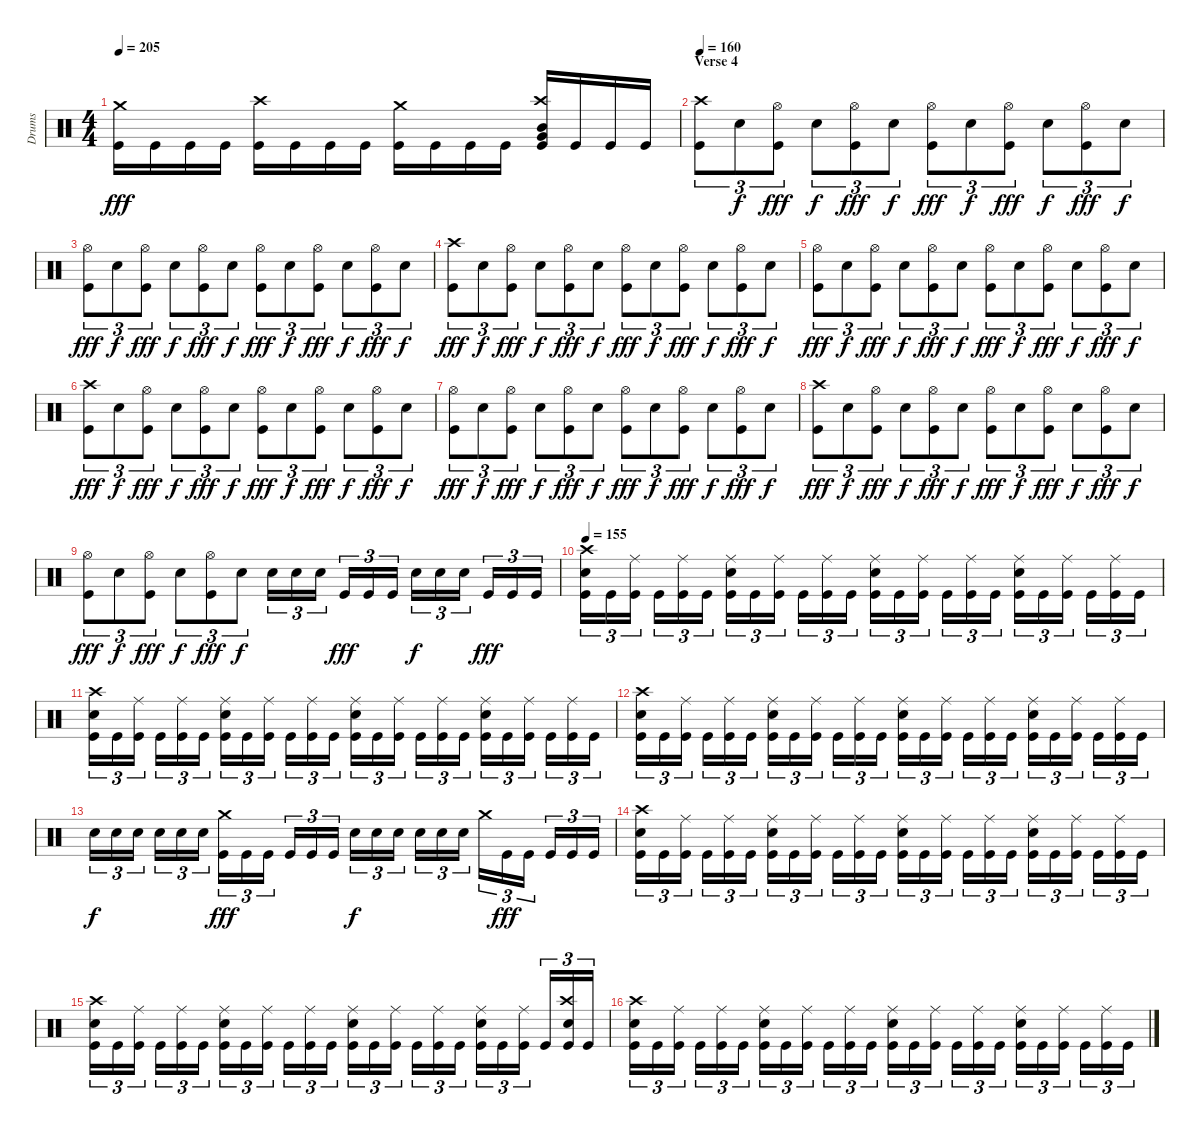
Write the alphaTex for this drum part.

\track ("Drums" "Drums") {instrument percussion}
\staff {score}
\articulation defaults
\ts (4 4)
\tempo 205
\clef neutral
\ks c
("Crash medium (hit)" "Kick (hit)").16{dy fff} "Kick (hit)".16 "Kick (hit)".16 "Kick (hit)".16 ("Crash high (hit)" "Kick (hit)").16 "Kick (hit)".16 "Kick (hit)".16 "Kick (hit)".16 ("Crash medium (hit)" "Kick (hit)").16 "Kick (hit)".16 "Kick (hit)".16 "Kick (hit)".16 ("Crash high (hit)" "Mid Tom (hit)" "Very Low Tom (hit)" "Kick (hit)").16 "Kick (hit)".16 "Kick (hit)".16 "Kick (hit)".16 |
\section ("" "Verse 4")
\tempo 160
("Crash high (hit)" "Kick (hit)").8{tu (3 2)} "Electric Snare (hit)".8{tu (3 2) dy f} ("Hi-Hat (open)" "Kick (hit)").8{tu (3 2) dy fff} "Electric Snare (hit)".8{tu (3 2) dy f} ("Hi-Hat (open)" "Kick (hit)").8{tu (3 2) dy fff} "Electric Snare (hit)".8{tu (3 2) dy f} ("Hi-Hat (open)" "Kick (hit)").8{tu (3 2) dy fff} "Electric Snare (hit)".8{tu (3 2) dy f} ("Hi-Hat (open)" "Kick (hit)").8{tu (3 2) dy fff} "Electric Snare (hit)".8{tu (3 2) dy f} ("Hi-Hat (open)" "Kick (hit)").8{tu (3 2) dy fff} "Electric Snare (hit)".8{tu (3 2) dy f} |
("Hi-Hat (open)" "Kick (hit)").8{tu (3 2) dy fff} "Electric Snare (hit)".8{tu (3 2) dy f} ("Hi-Hat (open)" "Kick (hit)").8{tu (3 2) dy fff} "Electric Snare (hit)".8{tu (3 2) dy f} ("Hi-Hat (open)" "Kick (hit)").8{tu (3 2) dy fff} "Electric Snare (hit)".8{tu (3 2) dy f} ("Hi-Hat (open)" "Kick (hit)").8{tu (3 2) dy fff} "Electric Snare (hit)".8{tu (3 2) dy f} ("Hi-Hat (open)" "Kick (hit)").8{tu (3 2) dy fff} "Electric Snare (hit)".8{tu (3 2) dy f} ("Hi-Hat (open)" "Kick (hit)").8{tu (3 2) dy fff} "Electric Snare (hit)".8{tu (3 2) dy f} |
("Crash high (hit)" "Kick (hit)").8{tu (3 2) dy fff} "Electric Snare (hit)".8{tu (3 2) dy f} ("Hi-Hat (open)" "Kick (hit)").8{tu (3 2) dy fff} "Electric Snare (hit)".8{tu (3 2) dy f} ("Hi-Hat (open)" "Kick (hit)").8{tu (3 2) dy fff} "Electric Snare (hit)".8{tu (3 2) dy f} ("Hi-Hat (open)" "Kick (hit)").8{tu (3 2) dy fff} "Electric Snare (hit)".8{tu (3 2) dy f} ("Hi-Hat (open)" "Kick (hit)").8{tu (3 2) dy fff} "Electric Snare (hit)".8{tu (3 2) dy f} ("Hi-Hat (open)" "Kick (hit)").8{tu (3 2) dy fff} "Electric Snare (hit)".8{tu (3 2) dy f} |
("Hi-Hat (open)" "Kick (hit)").8{tu (3 2) dy fff} "Electric Snare (hit)".8{tu (3 2) dy f} ("Hi-Hat (open)" "Kick (hit)").8{tu (3 2) dy fff} "Electric Snare (hit)".8{tu (3 2) dy f} ("Hi-Hat (open)" "Kick (hit)").8{tu (3 2) dy fff} "Electric Snare (hit)".8{tu (3 2) dy f} ("Hi-Hat (open)" "Kick (hit)").8{tu (3 2) dy fff} "Electric Snare (hit)".8{tu (3 2) dy f} ("Hi-Hat (open)" "Kick (hit)").8{tu (3 2) dy fff} "Electric Snare (hit)".8{tu (3 2) dy f} ("Hi-Hat (open)" "Kick (hit)").8{tu (3 2) dy fff} "Electric Snare (hit)".8{tu (3 2) dy f} |
("Crash high (hit)" "Kick (hit)").8{tu (3 2) dy fff} "Electric Snare (hit)".8{tu (3 2) dy f} ("Hi-Hat (open)" "Kick (hit)").8{tu (3 2) dy fff} "Electric Snare (hit)".8{tu (3 2) dy f} ("Hi-Hat (open)" "Kick (hit)").8{tu (3 2) dy fff} "Electric Snare (hit)".8{tu (3 2) dy f} ("Hi-Hat (open)" "Kick (hit)").8{tu (3 2) dy fff} "Electric Snare (hit)".8{tu (3 2) dy f} ("Hi-Hat (open)" "Kick (hit)").8{tu (3 2) dy fff} "Electric Snare (hit)".8{tu (3 2) dy f} ("Hi-Hat (open)" "Kick (hit)").8{tu (3 2) dy fff} "Electric Snare (hit)".8{tu (3 2) dy f} |
("Hi-Hat (open)" "Kick (hit)").8{tu (3 2) dy fff} "Electric Snare (hit)".8{tu (3 2) dy f} ("Hi-Hat (open)" "Kick (hit)").8{tu (3 2) dy fff} "Electric Snare (hit)".8{tu (3 2) dy f} ("Hi-Hat (open)" "Kick (hit)").8{tu (3 2) dy fff} "Electric Snare (hit)".8{tu (3 2) dy f} ("Hi-Hat (open)" "Kick (hit)").8{tu (3 2) dy fff} "Electric Snare (hit)".8{tu (3 2) dy f} ("Hi-Hat (open)" "Kick (hit)").8{tu (3 2) dy fff} "Electric Snare (hit)".8{tu (3 2) dy f} ("Hi-Hat (open)" "Kick (hit)").8{tu (3 2) dy fff} "Electric Snare (hit)".8{tu (3 2) dy f} |
("Crash high (hit)" "Kick (hit)").8{tu (3 2) dy fff} "Electric Snare (hit)".8{tu (3 2) dy f} ("Hi-Hat (open)" "Kick (hit)").8{tu (3 2) dy fff} "Electric Snare (hit)".8{tu (3 2) dy f} ("Hi-Hat (open)" "Kick (hit)").8{tu (3 2) dy fff} "Electric Snare (hit)".8{tu (3 2) dy f} ("Hi-Hat (open)" "Kick (hit)").8{tu (3 2) dy fff} "Electric Snare (hit)".8{tu (3 2) dy f} ("Hi-Hat (open)" "Kick (hit)").8{tu (3 2) dy fff} "Electric Snare (hit)".8{tu (3 2) dy f} ("Hi-Hat (open)" "Kick (hit)").8{tu (3 2) dy fff} "Electric Snare (hit)".8{tu (3 2) dy f} |
("Hi-Hat (open)" "Kick (hit)").8{tu (3 2) dy fff} "Electric Snare (hit)".8{tu (3 2) dy f} ("Hi-Hat (open)" "Kick (hit)").8{tu (3 2) dy fff} "Electric Snare (hit)".8{tu (3 2) dy f} ("Hi-Hat (open)" "Kick (hit)").8{tu (3 2) dy fff} "Electric Snare (hit)".8{tu (3 2) dy f} "Electric Snare (hit)".16{tu (3 2)} "Electric Snare (hit)".16{tu (3 2)} "Electric Snare (hit)".16{tu (3 2)} "Kick (hit)".16{tu (3 2) dy fff} "Kick (hit)".16{tu (3 2)} "Kick (hit)".16{tu (3 2)} "Electric Snare (hit)".16{tu (3 2) dy f} "Electric Snare (hit)".16{tu (3 2)} "Electric Snare (hit)".16{tu (3 2)} "Kick (hit)".16{tu (3 2) dy fff} "Kick (hit)".16{tu (3 2)} "Kick (hit)".16{tu (3 2)} |
\tempo 155
("Crash high (hit)" "Electric Snare (hit)" "Kick (hit)").16{tu (3 2)} "Kick (hit)".16{tu (3 2)} ("Ride (middle)" "Kick (hit)").16{tu (3 2)} "Kick (hit)".16{tu (3 2)} ("Ride (middle)" "Kick (hit)").16{tu (3 2)} "Kick (hit)".16{tu (3 2)} ("Ride (middle)" "Electric Snare (hit)" "Kick (hit)").16{tu (3 2)} "Kick (hit)".16{tu (3 2)} ("Ride (middle)" "Kick (hit)").16{tu (3 2)} "Kick (hit)".16{tu (3 2)} ("Ride (middle)" "Kick (hit)").16{tu (3 2)} "Kick (hit)".16{tu (3 2)} ("Ride (middle)" "Electric Snare (hit)" "Kick (hit)").16{tu (3 2)} "Kick (hit)".16{tu (3 2)} ("Ride (middle)" "Kick (hit)").16{tu (3 2)} "Kick (hit)".16{tu (3 2)} ("Ride (middle)" "Kick (hit)").16{tu (3 2)} "Kick (hit)".16{tu (3 2)} ("Ride (middle)" "Electric Snare (hit)" "Kick (hit)").16{tu (3 2)} "Kick (hit)".16{tu (3 2)} ("Ride (middle)" "Kick (hit)").16{tu (3 2)} "Kick (hit)".16{tu (3 2)} ("Ride (middle)" "Kick (hit)").16{tu (3 2)} "Kick (hit)".16{tu (3 2)} |
("Crash high (hit)" "Electric Snare (hit)" "Kick (hit)").16{tu (3 2)} "Kick (hit)".16{tu (3 2)} ("Ride (middle)" "Kick (hit)").16{tu (3 2)} "Kick (hit)".16{tu (3 2)} ("Ride (middle)" "Kick (hit)").16{tu (3 2)} "Kick (hit)".16{tu (3 2)} ("Ride (middle)" "Electric Snare (hit)" "Kick (hit)").16{tu (3 2)} "Kick (hit)".16{tu (3 2)} ("Ride (middle)" "Kick (hit)").16{tu (3 2)} "Kick (hit)".16{tu (3 2)} ("Ride (middle)" "Kick (hit)").16{tu (3 2)} "Kick (hit)".16{tu (3 2)} ("Ride (middle)" "Electric Snare (hit)" "Kick (hit)").16{tu (3 2)} "Kick (hit)".16{tu (3 2)} ("Ride (middle)" "Kick (hit)").16{tu (3 2)} "Kick (hit)".16{tu (3 2)} ("Ride (middle)" "Kick (hit)").16{tu (3 2)} "Kick (hit)".16{tu (3 2)} ("Ride (middle)" "Electric Snare (hit)" "Kick (hit)").16{tu (3 2)} "Kick (hit)".16{tu (3 2)} ("Ride (middle)" "Kick (hit)").16{tu (3 2)} "Kick (hit)".16{tu (3 2)} ("Ride (middle)" "Kick (hit)").16{tu (3 2)} "Kick (hit)".16{tu (3 2)} |
("Crash high (hit)" "Electric Snare (hit)" "Kick (hit)").16{tu (3 2)} "Kick (hit)".16{tu (3 2)} ("Ride (middle)" "Kick (hit)").16{tu (3 2)} "Kick (hit)".16{tu (3 2)} ("Ride (middle)" "Kick (hit)").16{tu (3 2)} "Kick (hit)".16{tu (3 2)} ("Ride (middle)" "Electric Snare (hit)" "Kick (hit)").16{tu (3 2)} "Kick (hit)".16{tu (3 2)} ("Ride (middle)" "Kick (hit)").16{tu (3 2)} "Kick (hit)".16{tu (3 2)} ("Ride (middle)" "Kick (hit)").16{tu (3 2)} "Kick (hit)".16{tu (3 2)} ("Ride (middle)" "Electric Snare (hit)" "Kick (hit)").16{tu (3 2)} "Kick (hit)".16{tu (3 2)} ("Ride (middle)" "Kick (hit)").16{tu (3 2)} "Kick (hit)".16{tu (3 2)} ("Ride (middle)" "Kick (hit)").16{tu (3 2)} "Kick (hit)".16{tu (3 2)} ("Ride (middle)" "Electric Snare (hit)" "Kick (hit)").16{tu (3 2)} "Kick (hit)".16{tu (3 2)} ("Ride (middle)" "Kick (hit)").16{tu (3 2)} "Kick (hit)".16{tu (3 2)} ("Ride (middle)" "Kick (hit)").16{tu (3 2)} "Kick (hit)".16{tu (3 2)} |
"Electric Snare (hit)".16{tu (3 2) dy f} "Electric Snare (hit)".16{tu (3 2)} "Electric Snare (hit)".16{tu (3 2)} "Electric Snare (hit)".16{tu (3 2)} "Electric Snare (hit)".16{tu (3 2)} "Electric Snare (hit)".16{tu (3 2)} ("Crash medium (hit)" "Kick (hit)").16{tu (3 2) dy fff} "Kick (hit)".16{tu (3 2)} "Kick (hit)".16{tu (3 2)} "Kick (hit)".16{tu (3 2)} "Kick (hit)".16{tu (3 2)} "Kick (hit)".16{tu (3 2)} "Electric Snare (hit)".16{tu (3 2) dy f} "Electric Snare (hit)".16{tu (3 2)} "Electric Snare (hit)".16{tu (3 2)} "Electric Snare (hit)".16{tu (3 2)} "Electric Snare (hit)".16{tu (3 2)} "Electric Snare (hit)".16{tu (3 2)} "Crash medium (hit)".16{tu (3 2)} "Kick (hit)".16{tu (3 2) dy fff} "Kick (hit)".16{tu (3 2)} "Kick (hit)".16{tu (3 2)} "Kick (hit)".16{tu (3 2)} "Kick (hit)".16{tu (3 2)} |
("Crash high (hit)" "Electric Snare (hit)" "Kick (hit)").16{tu (3 2)} "Kick (hit)".16{tu (3 2)} ("Ride (middle)" "Kick (hit)").16{tu (3 2)} "Kick (hit)".16{tu (3 2)} ("Ride (middle)" "Kick (hit)").16{tu (3 2)} "Kick (hit)".16{tu (3 2)} ("Ride (middle)" "Electric Snare (hit)" "Kick (hit)").16{tu (3 2)} "Kick (hit)".16{tu (3 2)} ("Ride (middle)" "Kick (hit)").16{tu (3 2)} "Kick (hit)".16{tu (3 2)} ("Ride (middle)" "Kick (hit)").16{tu (3 2)} "Kick (hit)".16{tu (3 2)} ("Ride (middle)" "Electric Snare (hit)" "Kick (hit)").16{tu (3 2)} "Kick (hit)".16{tu (3 2)} ("Ride (middle)" "Kick (hit)").16{tu (3 2)} "Kick (hit)".16{tu (3 2)} ("Ride (middle)" "Kick (hit)").16{tu (3 2)} "Kick (hit)".16{tu (3 2)} ("Ride (middle)" "Electric Snare (hit)" "Kick (hit)").16{tu (3 2)} "Kick (hit)".16{tu (3 2)} ("Ride (middle)" "Kick (hit)").16{tu (3 2)} "Kick (hit)".16{tu (3 2)} ("Ride (middle)" "Kick (hit)").16{tu (3 2)} "Kick (hit)".16{tu (3 2)} |
("Crash high (hit)" "Electric Snare (hit)" "Kick (hit)").16{tu (3 2)} "Kick (hit)".16{tu (3 2)} ("Ride (middle)" "Kick (hit)").16{tu (3 2)} "Kick (hit)".16{tu (3 2)} ("Ride (middle)" "Kick (hit)").16{tu (3 2)} "Kick (hit)".16{tu (3 2)} ("Ride (middle)" "Electric Snare (hit)" "Kick (hit)").16{tu (3 2)} "Kick (hit)".16{tu (3 2)} ("Ride (middle)" "Kick (hit)").16{tu (3 2)} "Kick (hit)".16{tu (3 2)} ("Ride (middle)" "Kick (hit)").16{tu (3 2)} "Kick (hit)".16{tu (3 2)} ("Ride (middle)" "Electric Snare (hit)" "Kick (hit)").16{tu (3 2)} "Kick (hit)".16{tu (3 2)} ("Ride (middle)" "Kick (hit)").16{tu (3 2)} "Kick (hit)".16{tu (3 2)} ("Ride (middle)" "Kick (hit)").16{tu (3 2)} "Kick (hit)".16{tu (3 2)} ("Ride (middle)" "Electric Snare (hit)" "Kick (hit)").16{tu (3 2)} "Kick (hit)".16{tu (3 2)} ("Ride (middle)" "Kick (hit)").16{tu (3 2)} "Kick (hit)".16{tu (3 2)} ("Crash high (hit)" "Electric Snare (hit)" "Kick (hit)").16{tu (3 2)} "Kick (hit)".16{tu (3 2)} |
("Crash high (hit)" "Electric Snare (hit)" "Kick (hit)").16{tu (3 2)} "Kick (hit)".16{tu (3 2)} ("Ride (middle)" "Kick (hit)").16{tu (3 2)} "Kick (hit)".16{tu (3 2)} ("Ride (middle)" "Kick (hit)").16{tu (3 2)} "Kick (hit)".16{tu (3 2)} ("Ride (middle)" "Electric Snare (hit)" "Kick (hit)").16{tu (3 2)} "Kick (hit)".16{tu (3 2)} ("Ride (middle)" "Kick (hit)").16{tu (3 2)} "Kick (hit)".16{tu (3 2)} ("Ride (middle)" "Kick (hit)").16{tu (3 2)} "Kick (hit)".16{tu (3 2)} ("Ride (middle)" "Electric Snare (hit)" "Kick (hit)").16{tu (3 2)} "Kick (hit)".16{tu (3 2)} ("Ride (middle)" "Kick (hit)").16{tu (3 2)} "Kick (hit)".16{tu (3 2)} ("Ride (middle)" "Kick (hit)").16{tu (3 2)} "Kick (hit)".16{tu (3 2)} ("Ride (middle)" "Electric Snare (hit)" "Kick (hit)").16{tu (3 2)} "Kick (hit)".16{tu (3 2)} ("Ride (middle)" "Kick (hit)").16{tu (3 2)} "Kick (hit)".16{tu (3 2)} ("Ride (middle)" "Kick (hit)").16{tu (3 2)} "Kick (hit)".16{tu (3 2)}
